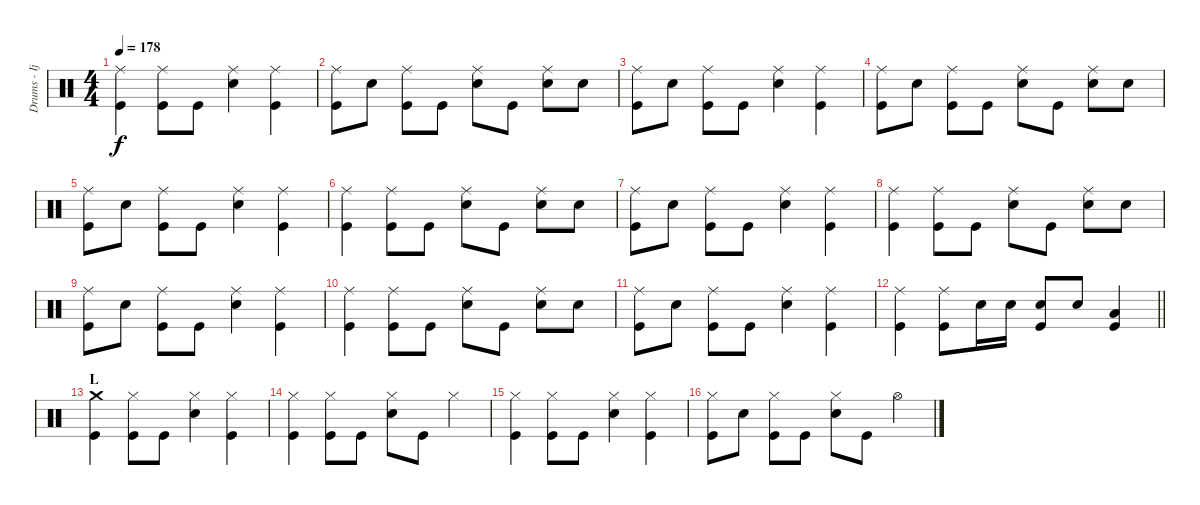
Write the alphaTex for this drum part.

\track ("Drums - Ijichi" "Drums - Ij") {instrument percussion}
\staff {score}
\articulation defaults
\ts (4 4)
\tempo 178
\clef neutral
\ks c
("Ride (middle)" "Kick (hit)").4{dy f} ("Ride (middle)" "Kick (hit)").8 "Kick (hit)".8 ("Ride (middle)" "Electric Snare (hit)").4 ("Ride (middle)" "Kick (hit)").4 |
("Ride (middle)" "Kick (hit)").8 "Electric Snare (hit)".8 ("Ride (middle)" "Kick (hit)").8 "Kick (hit)".8 ("Ride (middle)" "Electric Snare (hit)").8 "Kick (hit)".8 ("Ride (middle)" "Electric Snare (hit)").8 "Electric Snare (hit)".8 |
("Ride (middle)" "Kick (hit)").8 "Electric Snare (hit)".8 ("Ride (middle)" "Kick (hit)").8 "Kick (hit)".8 ("Ride (middle)" "Electric Snare (hit)").4 ("Ride (middle)" "Kick (hit)").4 |
("Ride (middle)" "Kick (hit)").8 "Electric Snare (hit)".8 ("Ride (middle)" "Kick (hit)").8 "Kick (hit)".8 ("Ride (middle)" "Electric Snare (hit)").8 "Kick (hit)".8 ("Ride (middle)" "Electric Snare (hit)").8 "Electric Snare (hit)".8 |
("Ride (middle)" "Kick (hit)").8 "Electric Snare (hit)".8 ("Ride (middle)" "Kick (hit)").8 "Kick (hit)".8 ("Ride (middle)" "Electric Snare (hit)").4 ("Ride (middle)" "Kick (hit)").4 |
("Ride (middle)" "Kick (hit)").4 ("Ride (middle)" "Kick (hit)").8 "Kick (hit)".8 ("Ride (middle)" "Electric Snare (hit)").8 "Kick (hit)".8 ("Ride (middle)" "Electric Snare (hit)").8 "Electric Snare (hit)".8 |
("Ride (middle)" "Kick (hit)").8 "Electric Snare (hit)".8 ("Ride (middle)" "Kick (hit)").8 "Kick (hit)".8 ("Ride (middle)" "Electric Snare (hit)").4 ("Ride (middle)" "Kick (hit)").4 |
("Ride (middle)" "Kick (hit)").4 ("Ride (middle)" "Kick (hit)").8 "Kick (hit)".8 ("Ride (middle)" "Electric Snare (hit)").8 "Kick (hit)".8 ("Ride (middle)" "Electric Snare (hit)").8 "Electric Snare (hit)".8 |
("Ride (middle)" "Kick (hit)").8 "Electric Snare (hit)".8 ("Ride (middle)" "Kick (hit)").8 "Kick (hit)".8 ("Ride (middle)" "Electric Snare (hit)").4 ("Ride (middle)" "Kick (hit)").4 |
("Ride (middle)" "Kick (hit)").4 ("Ride (middle)" "Kick (hit)").8 "Kick (hit)".8 ("Ride (middle)" "Electric Snare (hit)").8 "Kick (hit)".8 ("Ride (middle)" "Electric Snare (hit)").8 "Electric Snare (hit)".8 |
("Ride (middle)" "Kick (hit)").8 "Electric Snare (hit)".8 ("Ride (middle)" "Kick (hit)").8 "Kick (hit)".8 ("Ride (middle)" "Electric Snare (hit)").4 ("Ride (middle)" "Kick (hit)").4 |
\barLineRight lightlight
("Ride (middle)" "Kick (hit)").4 ("Ride (middle)" "Kick (hit)").8 "Electric Snare (hit)".16 "Electric Snare (hit)".16 ("Electric Snare (hit)" "Kick (hit)").8 "Electric Snare (hit)".8 ("Low Tom (hit)" "Kick (hit)").4 |
\section ("" "L")
("Crash medium (hit)" "Kick (hit)").4 ("Hi-Hat (closed)" "Kick (hit)").8 "Kick (hit)".8 ("Hi-Hat (closed)" "Electric Snare (hit)").4 ("Hi-Hat (closed)" "Kick (hit)").4 |
("Hi-Hat (closed)" "Kick (hit)").4 ("Hi-Hat (closed)" "Kick (hit)").8 "Kick (hit)".8 ("Hi-Hat (closed)" "Electric Snare (hit)").8 "Kick (hit)".8 "Hi-Hat (closed)".4 |
("Hi-Hat (closed)" "Kick (hit)").4 ("Hi-Hat (closed)" "Kick (hit)").8 "Kick (hit)".8 ("Hi-Hat (closed)" "Electric Snare (hit)").4 ("Hi-Hat (closed)" "Kick (hit)").4 |
("Hi-Hat (closed)" "Kick (hit)").8 "Electric Snare (hit)".8 ("Hi-Hat (closed)" "Kick (hit)").8 "Kick (hit)".8 ("Hi-Hat (closed)" "Electric Snare (hit)").8 "Kick (hit)".8 "Hi-Hat (open)".4
